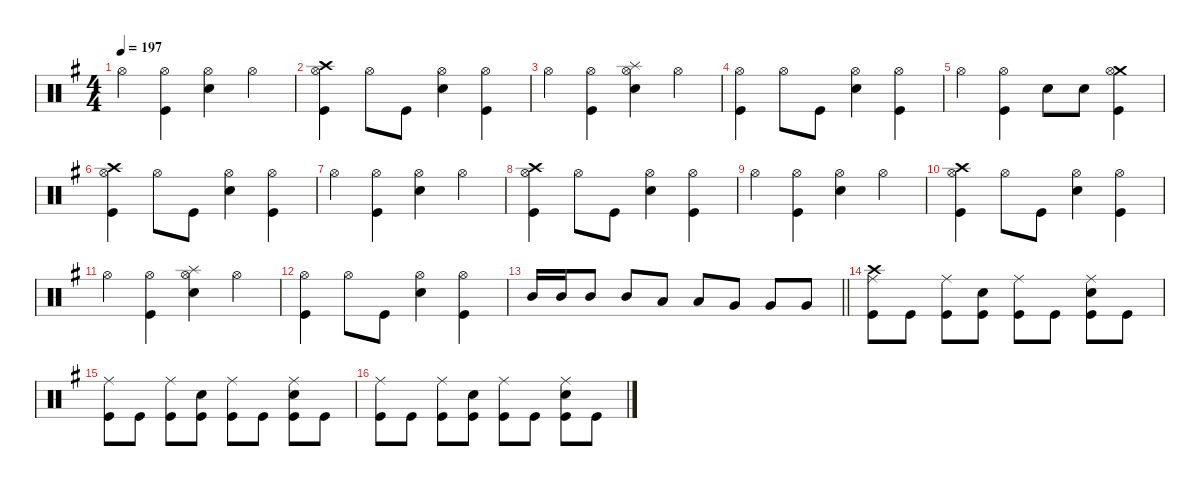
\defaultSystemsLayout 4
\hideDynamics
\bracketExtendMode nobrackets
\singleTrackTrackNamePolicy hidden
\multiTrackTrackNamePolicy hidden
\firstSystemTrackNameMode fullname
\firstSystemTrackNameOrientation horizontal
\otherSystemsTrackNameOrientation horizontal
\track ("Drums" "drm.") {defaultSystemsLayout 4 instrument percussion}
\staff {score}
\articulation defaults
\ts (4 4)
\tempo 197
\clef neutral
\ks eminor "Hi-Hat (open)"{acc forcenatural}.4{dy f beam Down}
("Hi-Hat (open)"{acc forcenatural} "Kick (hit)"{acc forcenatural}).4{beam Down} ("Hi-Hat (open)"{acc forcenatural} "Snare (hit) 2"{acc forcenatural}).4{beam Down} "Hi-Hat (open)"{acc forcenatural}.4{beam Down} |
("Crash high (hit)"{acc forcenatural} "Hi-Hat (open)"{acc forcenatural} "Kick (hit)"{acc forcenatural}).4{beam Down} "Hi-Hat (open)"{acc forcenatural}.8{beam Down} "Kick (hit)"{acc forcenatural}.8{beam Down} ("Hi-Hat (open)"{acc forcenatural} "Snare (hit) 2"{acc forcenatural}).4{beam Down} ("Hi-Hat (open)"{acc forcenatural} "Kick (hit)"{acc forcenatural}).4{beam Down} |
"Hi-Hat (open)"{acc forcenatural}.4{beam Down} ("Hi-Hat (open)"{acc forcenatural} "Kick (hit)"{acc forcenatural}).4{beam Down} ("Splash (hit)"{acc forcenatural} "Hi-Hat (open)"{acc forcenatural} "Snare (hit) 2"{acc forcenatural}).4{beam Down} "Hi-Hat (open)"{acc forcenatural}.4{beam Down} |
("Hi-Hat (open)"{acc forcenatural} "Kick (hit)"{acc forcenatural}).4{beam Down} "Hi-Hat (open)"{acc forcenatural}.8{beam Down} "Kick (hit)"{acc forcenatural}.8{beam Down} ("Hi-Hat (open)"{acc forcenatural} "Snare (hit) 2"{acc forcenatural}).4{beam Down} ("Hi-Hat (open)"{acc forcenatural} "Kick (hit)"{acc forcenatural}).4{beam Down} |
"Hi-Hat (open)"{acc forcenatural}.4{beam Down} ("Hi-Hat (open)"{acc forcenatural} "Kick (hit)"{acc forcenatural}).4{beam Down} "Snare (hit) 2"{acc forcenatural}.8{beam Down} "Snare (hit) 2"{acc forcenatural}.8{beam Down} ("Crash medium (hit)"{acc forcenatural} "Hi-Hat (open)"{acc forcenatural} "Kick (hit)"{acc forcenatural}).4{beam Down} |
("Crash high (hit)"{acc forcenatural} "Hi-Hat (open)"{acc forcenatural} "Kick (hit)"{acc forcenatural}).4{beam Down} "Hi-Hat (open)"{acc forcenatural}.8{beam Down} "Kick (hit)"{acc forcenatural}.8{beam Down} ("Hi-Hat (open)"{acc forcenatural} "Snare (hit) 2"{acc forcenatural}).4{beam Down} ("Hi-Hat (open)"{acc forcenatural} "Kick (hit)"{acc forcenatural}).4{beam Down} |
"Hi-Hat (open)"{acc forcenatural}.4{beam Down} ("Hi-Hat (open)"{acc forcenatural} "Kick (hit)"{acc forcenatural}).4{beam Down} ("Hi-Hat (open)"{acc forcenatural} "Snare (hit) 2"{acc forcenatural}).4{beam Down} "Hi-Hat (open)"{acc forcenatural}.4{beam Down} |
("Crash high (hit)"{acc forcenatural} "Hi-Hat (open)"{acc forcenatural} "Kick (hit)"{acc forcenatural}).4{beam Down} "Hi-Hat (open)"{acc forcenatural}.8{beam Down} "Kick (hit)"{acc forcenatural}.8{beam Down} ("Hi-Hat (open)"{acc forcenatural} "Snare (hit) 2"{acc forcenatural}).4{beam Down} ("Hi-Hat (open)"{acc forcenatural} "Kick (hit)"{acc forcenatural}).4{beam Down} |
"Hi-Hat (open)"{acc forcenatural}.4{beam Down} ("Hi-Hat (open)"{acc forcenatural} "Kick (hit)"{acc forcenatural}).4{beam Down} ("Hi-Hat (open)"{acc forcenatural} "Snare (hit) 2"{acc forcenatural}).4{beam Down} "Hi-Hat (open)"{acc forcenatural}.4{beam Down} |
("Crash high (hit)"{acc forcenatural} "Hi-Hat (open)"{acc forcenatural} "Kick (hit)"{acc forcenatural}).4{beam Down} "Hi-Hat (open)"{acc forcenatural}.8{beam Down} "Kick (hit)"{acc forcenatural}.8{beam Down} ("Hi-Hat (open)"{acc forcenatural} "Snare (hit) 2"{acc forcenatural}).4{beam Down} ("Hi-Hat (open)"{acc forcenatural} "Kick (hit)"{acc forcenatural}).4{beam Down} |
"Hi-Hat (open)"{acc forcenatural}.4{beam Down} ("Hi-Hat (open)"{acc forcenatural} "Kick (hit)"{acc forcenatural}).4{beam Down} ("Splash (hit)"{acc forcenatural} "Hi-Hat (open)"{acc forcenatural} "Snare (hit) 2"{acc forcenatural}).4{beam Down} "Hi-Hat (open)"{acc forcenatural}.4{beam Down} |
("Hi-Hat (open)"{acc forcenatural} "Kick (hit)"{acc forcenatural}).4{beam Down} "Hi-Hat (open)"{acc forcenatural}.8{beam Down} "Kick (hit)"{acc forcenatural}.8{beam Down} ("Hi-Hat (open)"{acc forcenatural} "Snare (hit) 2"{acc forcenatural}).4{beam Down} ("Hi-Hat (open)"{acc forcenatural} "Kick (hit)"{acc forcenatural}).4{beam Down} |
\barLineRight lightlight "Mid Tom (hit)"{acc forcenatural}.16{beam Up} "Mid Tom (hit)"{acc forcenatural}.16{beam Up} "Mid Tom (hit)"{acc forcenatural}.8{beam Up} "Mid Tom (hit)"{acc forcenatural}.8{beam Up} "Low Tom (hit)"{acc forcenatural}.8{beam Up} "Low Tom (hit)"{acc forcenatural}.8{beam Up} "Very Low Tom (hit)"{acc forcenatural}.8{beam Up} "Very Low Tom (hit)"{acc forcenatural}.8{beam Up} "Very Low Tom (hit)"{acc forcenatural}.8{beam Up}
|
("Crash high (hit)"{acc forcenatural} "Ride (middle)"{acc forcenatural} "Kick (hit)"{acc forcenatural}).8{beam Down} "Kick (hit)"{acc forcenatural}.8{beam Down} ("Ride (middle)"{acc forcenatural} "Kick (hit)"{acc forcenatural}).8{beam Down} ("Snare (hit) 2"{acc forcenatural} "Kick (hit)"{acc forcenatural}).8{beam Down} ("Ride (middle)"{acc forcenatural} "Kick (hit)"{acc forcenatural}).8{beam Down} "Kick (hit)"{acc forcenatural}.8{beam Down} ("Ride (middle)"{acc forcenatural} "Snare (hit) 2"{acc forcenatural} "Kick (hit)"{acc forcenatural}).8{beam Down} "Kick (hit)"{acc forcenatural}.8{beam Down} |
("Ride (middle)"{acc forcenatural} "Kick (hit)"{acc forcenatural}).8{beam Down} "Kick (hit)"{acc forcenatural}.8{beam Down} ("Ride (middle)"{acc forcenatural} "Kick (hit)"{acc forcenatural}).8{beam Down} ("Snare (hit) 2"{acc forcenatural} "Kick (hit)"{acc forcenatural}).8{beam Down} ("Ride (middle)"{acc forcenatural} "Kick (hit)"{acc forcenatural}).8{beam Down} "Kick (hit)"{acc forcenatural}.8{beam Down} ("Ride (middle)"{acc forcenatural} "Snare (hit) 2"{acc forcenatural} "Kick (hit)"{acc forcenatural}).8{beam Down} "Kick (hit)"{acc forcenatural}.8{beam Down} |
("Ride (middle)"{acc forcenatural} "Kick (hit)"{acc forcenatural}).8{beam Down} "Kick (hit)"{acc forcenatural}.8{beam Down} ("Ride (middle)"{acc forcenatural} "Kick (hit)"{acc forcenatural}).8{beam Down} ("Snare (hit) 2"{acc forcenatural} "Kick (hit)"{acc forcenatural}).8{beam Down} ("Ride (middle)"{acc forcenatural} "Kick (hit)"{acc forcenatural}).8{beam Down} "Kick (hit)"{acc forcenatural}.8{beam Down} ("Ride (middle)"{acc forcenatural} "Snare (hit) 2"{acc forcenatural} "Kick (hit)"{acc forcenatural}).8{beam Down} "Kick (hit)"{acc forcenatural}.8{beam Down}
